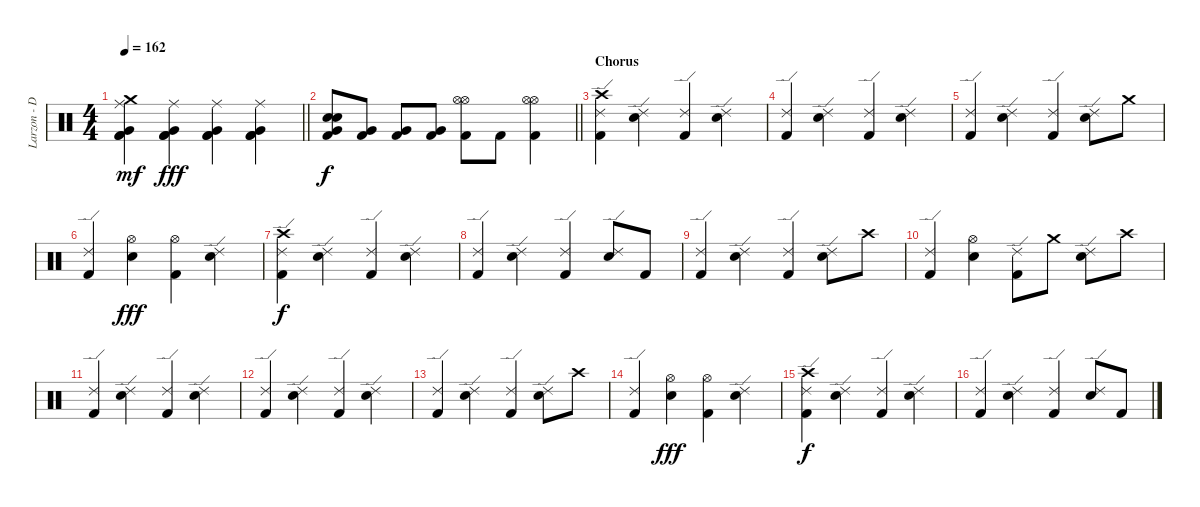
\track ("Larzon - Drums" "Larzon - D") {instrument percussion}
\staff {score}
\articulation defaults
\ts (4 4)
\tempo 162
\clef neutral
\barLineRight lightlight
\ks c
("Ride (middle)" "Kick (hit) 2" "Kick (hit) 2" "Very Low Tom (hit)" "Crash medium (hit)").4{dy mf} ("Ride (middle)" "Kick (hit) 2" "Kick (hit) 2" "Very Low Tom (hit)").4{dy fff} ("Ride (middle)" "Kick (hit) 2" "Kick (hit) 2" "Very Low Tom (hit)").4 ("Ride (middle)" "Kick (hit) 2" "Kick (hit) 2" "Very Low Tom (hit)").4 |
\barLineRight lightlight
("Kick (hit) 2" "Electric Snare (hit)" "Electric Snare (hit)" "Very Low Tom (hit)").8{dy f} ("Kick (hit) 2" "Very Low Tom (hit)").8 ("Kick (hit) 2" "Very Low Tom (hit)").8 ("Kick (hit) 2" "Very Low Tom (hit)").8 ("Kick (hit) 2" "Hi-Hat (open)" "Hi-Hat (open)").8 "Kick (hit) 2".8 ("Kick (hit) 2" "Hi-Hat (open)" "Hi-Hat (open)").4 |
\section ("" "Chorus")
("Kick (hit) 2" "Ride (edge) 2" "Crash high (hit)").4 ("Electric Snare (hit)" "Ride (edge) 2").4 ("Kick (hit) 2" "Ride (edge) 2").4 ("Electric Snare (hit)" "Ride (edge) 2").4 |
("Kick (hit) 2" "Ride (edge) 2").4 ("Electric Snare (hit)" "Ride (edge) 2").4 ("Kick (hit) 2" "Ride (edge) 2").4 ("Electric Snare (hit)" "Ride (edge) 2").4 |
("Kick (hit) 2" "Ride (edge) 2").4 ("Electric Snare (hit)" "Ride (edge) 2").4 ("Kick (hit) 2" "Ride (edge) 2").4 ("Electric Snare (hit)" "Ride (edge) 2").8 "Crash medium (hit)".8 |
("Kick (hit) 2" "Ride (edge) 2").4 ("Electric Snare (hit)" "Hi-Hat (open)").4{dy fff} ("Kick (hit) 2" "Hi-Hat (open)").4 ("Electric Snare (hit)" "Ride (edge) 2").4 |
("Kick (hit) 2" "Ride (edge) 2" "Crash high (hit)").4{dy f} ("Electric Snare (hit)" "Ride (edge) 2").4 ("Kick (hit) 2" "Ride (edge) 2").4 ("Electric Snare (hit)" "Ride (edge) 2").4 |
("Kick (hit) 2" "Ride (edge) 2").4 ("Electric Snare (hit)" "Ride (edge) 2").4 ("Kick (hit) 2" "Ride (edge) 2").4 ("Electric Snare (hit)" "Ride (edge) 2").8 "Kick (hit) 2".8 |
("Kick (hit) 2" "Ride (edge) 2").4 ("Electric Snare (hit)" "Ride (edge) 2").4 ("Kick (hit) 2" "Ride (edge) 2").4 ("Electric Snare (hit)" "Ride (edge) 2").8 "Crash high (hit)".8 |
("Kick (hit) 2" "Ride (edge) 2").4 ("Electric Snare (hit)" "Hi-Hat (open)").4 ("Kick (hit) 2" "Ride (edge) 2").8 "Crash medium (hit)".8 ("Electric Snare (hit)" "Ride (edge) 2").8 "Crash high (hit)".8 |
("Kick (hit) 2" "Ride (edge) 2").4 ("Electric Snare (hit)" "Ride (edge) 2").4 ("Kick (hit) 2" "Ride (edge) 2").4 ("Electric Snare (hit)" "Ride (edge) 2").4 |
("Kick (hit) 2" "Ride (edge) 2").4 ("Electric Snare (hit)" "Ride (edge) 2").4 ("Kick (hit) 2" "Ride (edge) 2").4 ("Electric Snare (hit)" "Ride (edge) 2").4 |
("Kick (hit) 2" "Ride (edge) 2").4 ("Electric Snare (hit)" "Ride (edge) 2").4 ("Kick (hit) 2" "Ride (edge) 2").4 ("Electric Snare (hit)" "Ride (edge) 2").8 "Crash high (hit)".8 |
("Kick (hit) 2" "Ride (edge) 2").4 ("Electric Snare (hit)" "Hi-Hat (open)").4{dy fff} ("Kick (hit) 2" "Hi-Hat (open)").4 ("Electric Snare (hit)" "Ride (edge) 2").4 |
("Kick (hit) 2" "Ride (edge) 2" "Crash high (hit)").4{dy f} ("Electric Snare (hit)" "Ride (edge) 2").4 ("Kick (hit) 2" "Ride (edge) 2").4 ("Electric Snare (hit)" "Ride (edge) 2").4 |
("Kick (hit) 2" "Ride (edge) 2").4 ("Electric Snare (hit)" "Ride (edge) 2").4 ("Kick (hit) 2" "Ride (edge) 2").4 ("Electric Snare (hit)" "Ride (edge) 2").8 "Kick (hit) 2".8
